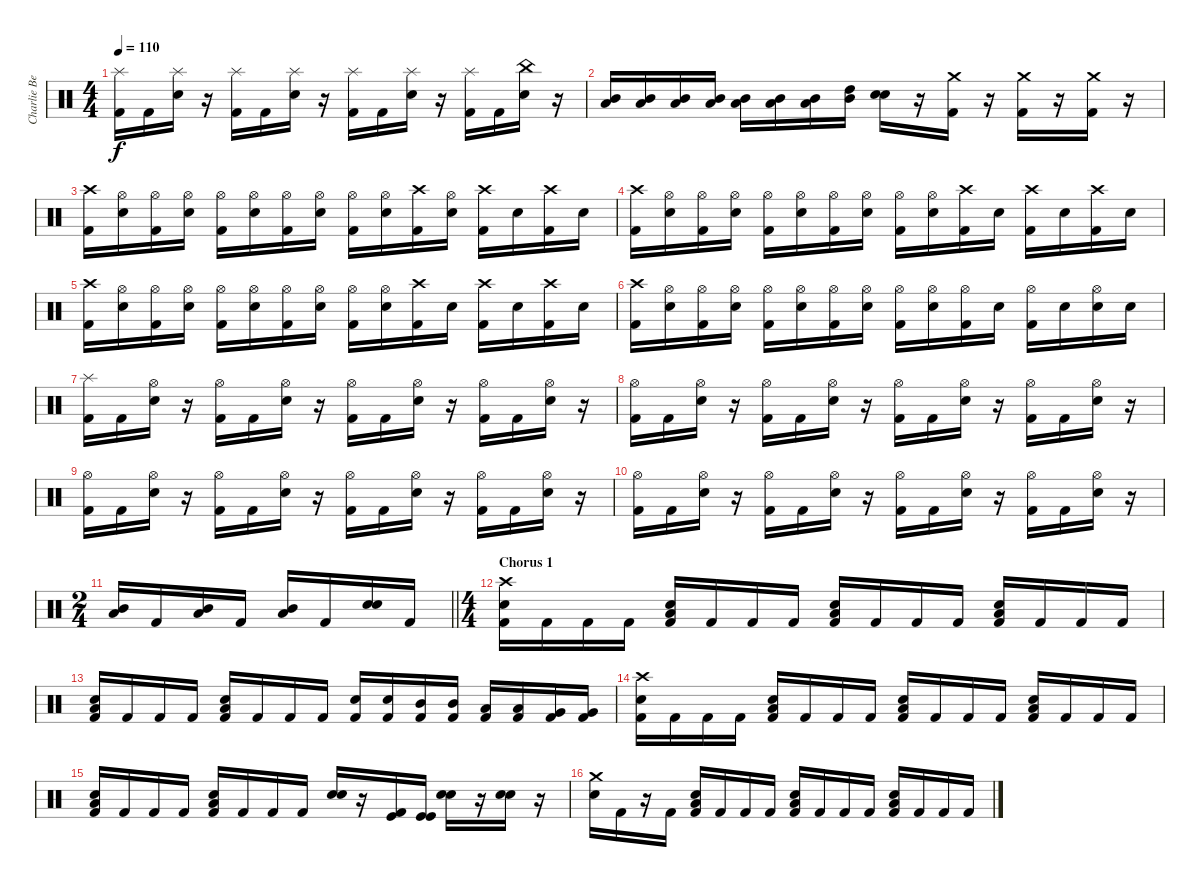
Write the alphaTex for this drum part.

\track ("Charlie Benante" "Charlie Be") {instrument percussion}
\staff {score}
\articulation defaults
\ts (4 4)
\tempo 110
\clef neutral
\ks c
("Splash (hit)" "Kick (hit) 2").16{dy f} "Kick (hit) 2".16 ("Splash (hit)" "Electric Snare (hit)").16 r.16 ("Splash (hit)" "Kick (hit) 2").16 "Kick (hit) 2".16 ("Splash (hit)" "Electric Snare (hit)").16 r.16 ("Splash (hit)" "Kick (hit) 2").16 "Kick (hit) 2".16 ("Splash (hit)" "Electric Snare (hit)").16 r.16 ("Splash (hit)" "Kick (hit) 2").16 "Kick (hit) 2".16 ("China (hit)" "Electric Snare (hit)").16 r.16 |
("Low Tom (hit)" "Mid Tom (hit)").16 ("Low Tom (hit)" "Mid Tom (hit)").16 ("Low Tom (hit)" "Mid Tom (hit)").16 ("Low Tom (hit)" "Mid Tom (hit)").16 ("Low Tom (hit)" "Mid Tom (hit)").16 ("Low Tom (hit)" "Mid Tom (hit)").16 ("Low Tom (hit)" "Mid Tom (hit)").16 ("Mid Tom (hit)" "High Tom (hit)").16 ("Electric Snare (hit)" "Snare (hit) 2").16 r.16 ("Crash medium (hit)" "Kick (hit) 2").16 r.16 ("Crash medium (hit)" "Kick (hit) 2").16 r.16 ("Crash medium (hit)" "Kick (hit) 2").16 r.16 |
("Crash high (hit)" "Kick (hit) 2").16 ("Hi-Hat (open)" "Electric Snare (hit)").16 ("Hi-Hat (open)" "Kick (hit) 2").16 ("Hi-Hat (open)" "Electric Snare (hit)").16 ("Hi-Hat (open)" "Kick (hit) 2").16 ("Hi-Hat (open)" "Electric Snare (hit)").16 ("Hi-Hat (open)" "Kick (hit) 2").16 ("Hi-Hat (open)" "Electric Snare (hit)").16 ("Hi-Hat (open)" "Kick (hit) 2").16 ("Hi-Hat (open)" "Electric Snare (hit)").16 ("Crash high (hit)" "Kick (hit) 2").16 ("Hi-Hat (open)" "Electric Snare (hit)").16 ("Crash high (hit)" "Kick (hit) 2").16 "Electric Snare (hit)".16 ("Crash high (hit)" "Kick (hit) 2").16 "Electric Snare (hit)".16 |
("Crash high (hit)" "Kick (hit) 2").16 ("Hi-Hat (open)" "Electric Snare (hit)").16 ("Hi-Hat (open)" "Kick (hit) 2").16 ("Hi-Hat (open)" "Electric Snare (hit)").16 ("Hi-Hat (open)" "Kick (hit) 2").16 ("Hi-Hat (open)" "Electric Snare (hit)").16 ("Hi-Hat (open)" "Kick (hit) 2").16 ("Hi-Hat (open)" "Electric Snare (hit)").16 ("Hi-Hat (open)" "Kick (hit) 2").16 ("Hi-Hat (open)" "Electric Snare (hit)").16 ("Crash high (hit)" "Kick (hit) 2").16 "Electric Snare (hit)".16 ("Crash high (hit)" "Kick (hit) 2").16 "Electric Snare (hit)".16 ("Crash high (hit)" "Kick (hit) 2").16 "Electric Snare (hit)".16 |
("Crash high (hit)" "Kick (hit) 2").16 ("Hi-Hat (open)" "Electric Snare (hit)").16 ("Hi-Hat (open)" "Kick (hit) 2").16 ("Hi-Hat (open)" "Electric Snare (hit)").16 ("Hi-Hat (open)" "Kick (hit) 2").16 ("Hi-Hat (open)" "Electric Snare (hit)").16 ("Hi-Hat (open)" "Kick (hit) 2").16 ("Hi-Hat (open)" "Electric Snare (hit)").16 ("Hi-Hat (open)" "Kick (hit) 2").16 ("Hi-Hat (open)" "Electric Snare (hit)").16 ("Crash high (hit)" "Kick (hit) 2").16 "Electric Snare (hit)".16 ("Crash high (hit)" "Kick (hit) 2").16 "Electric Snare (hit)".16 ("Crash high (hit)" "Kick (hit) 2").16 "Electric Snare (hit)".16 |
("Crash high (hit)" "Kick (hit) 2").16 ("Hi-Hat (open)" "Electric Snare (hit)").16 ("Hi-Hat (open)" "Kick (hit) 2").16 ("Hi-Hat (open)" "Electric Snare (hit)").16 ("Hi-Hat (open)" "Kick (hit) 2").16 ("Hi-Hat (open)" "Electric Snare (hit)").16 ("Hi-Hat (open)" "Kick (hit) 2").16 ("Hi-Hat (open)" "Electric Snare (hit)").16 ("Hi-Hat (open)" "Kick (hit) 2").16 ("Hi-Hat (open)" "Electric Snare (hit)").16 ("Hi-Hat (open)" "Kick (hit) 2").16 "Electric Snare (hit)".16 ("Hi-Hat (open)" "Kick (hit) 2").16 "Electric Snare (hit)".16 ("Hi-Hat (open)" "Electric Snare (hit)").16 "Electric Snare (hit)".16 |
("Splash (hit)" "Kick (hit) 2").16 "Kick (hit) 2".16 ("Hi-Hat (open)" "Electric Snare (hit)").16 r.16 ("Hi-Hat (open)" "Kick (hit) 2").16 "Kick (hit) 2".16 ("Hi-Hat (open)" "Electric Snare (hit)").16 r.16 ("Hi-Hat (open)" "Kick (hit) 2").16 "Kick (hit) 2".16 ("Hi-Hat (open)" "Electric Snare (hit)").16 r.16 ("Hi-Hat (open)" "Kick (hit) 2").16 "Kick (hit) 2".16 ("Hi-Hat (open)" "Electric Snare (hit)").16 r.16 |
("Hi-Hat (open)" "Kick (hit) 2").16 "Kick (hit) 2".16 ("Hi-Hat (open)" "Electric Snare (hit)").16 r.16 ("Hi-Hat (open)" "Kick (hit) 2").16 "Kick (hit) 2".16 ("Hi-Hat (open)" "Electric Snare (hit)").16 r.16 ("Hi-Hat (open)" "Kick (hit) 2").16 "Kick (hit) 2".16 ("Hi-Hat (open)" "Electric Snare (hit)").16 r.16 ("Hi-Hat (open)" "Kick (hit) 2").16 "Kick (hit) 2".16 ("Hi-Hat (open)" "Electric Snare (hit)").16 r.16 |
("Hi-Hat (open)" "Kick (hit) 2").16 "Kick (hit) 2".16 ("Hi-Hat (open)" "Electric Snare (hit)").16 r.16 ("Hi-Hat (open)" "Kick (hit) 2").16 "Kick (hit) 2".16 ("Hi-Hat (open)" "Electric Snare (hit)").16 r.16 ("Hi-Hat (open)" "Kick (hit) 2").16 "Kick (hit) 2".16 ("Hi-Hat (open)" "Electric Snare (hit)").16 r.16 ("Hi-Hat (open)" "Kick (hit) 2").16 "Kick (hit) 2".16 ("Hi-Hat (open)" "Electric Snare (hit)").16 r.16 |
("Hi-Hat (open)" "Kick (hit) 2").16 "Kick (hit) 2".16 ("Hi-Hat (open)" "Electric Snare (hit)").16 r.16 ("Hi-Hat (open)" "Kick (hit) 2").16 "Kick (hit) 2".16 ("Hi-Hat (open)" "Electric Snare (hit)").16 r.16 ("Hi-Hat (open)" "Kick (hit) 2").16 "Kick (hit) 2".16 ("Hi-Hat (open)" "Electric Snare (hit)").16 r.16 ("Hi-Hat (open)" "Kick (hit) 2").16 "Kick (hit) 2".16 ("Hi-Hat (open)" "Electric Snare (hit)").16 r.16 |
\ts (2 4)
\barLineRight lightlight
("Low Tom (hit)" "Mid Tom (hit)").16 "Kick (hit) 2".16 ("Low Tom (hit)" "Mid Tom (hit)").16 "Kick (hit) 2".16 ("Low Tom (hit)" "Mid Tom (hit)").16 "Kick (hit) 2".16 ("Snare (hit) 2" "Electric Snare (hit)").16 "Kick (hit) 2".16 |
\ts (4 4)
\section ("" "Chorus 1")
("Crash high (hit)" "Electric Snare (hit)" "Kick (hit) 2").16 "Kick (hit) 2".16 "Kick (hit) 2".16 "Kick (hit) 2".16 ("Low Floor Tom (hit)" "Electric Snare (hit)" "Kick (hit) 2").16 "Kick (hit) 2".16 "Kick (hit) 2".16 "Kick (hit) 2".16 ("Low Floor Tom (hit)" "Electric Snare (hit)" "Kick (hit) 2").16 "Kick (hit) 2".16 "Kick (hit) 2".16 "Kick (hit) 2".16 ("Low Floor Tom (hit)" "Electric Snare (hit)" "Kick (hit) 2").16 "Kick (hit) 2".16 "Kick (hit) 2".16 "Kick (hit) 2".16 |
("Low Floor Tom (hit)" "Electric Snare (hit)" "Kick (hit) 2").16 "Kick (hit) 2".16 "Kick (hit) 2".16 "Kick (hit) 2".16 ("Low Floor Tom (hit)" "Electric Snare (hit)" "Kick (hit) 2").16 "Kick (hit) 2".16 "Kick (hit) 2".16 "Kick (hit) 2".16 ("Electric Snare (hit)" "Kick (hit) 2").16 ("Electric Snare (hit)" "Kick (hit) 2").16 ("Mid Tom (hit)" "Kick (hit) 2").16 ("Mid Tom (hit)" "Kick (hit) 2").16 ("Low Tom (hit)" "Kick (hit) 2").16 ("Low Tom (hit)" "Kick (hit) 2").16 ("Very Low Tom (hit)" "Kick (hit) 2").16 ("Very Low Tom (hit)" "Kick (hit) 2").16 |
("Crash high (hit)" "Electric Snare (hit)" "Kick (hit) 2").16 "Kick (hit) 2".16 "Kick (hit) 2".16 "Kick (hit) 2".16 ("Low Floor Tom (hit)" "Electric Snare (hit)" "Kick (hit) 2").16 "Kick (hit) 2".16 "Kick (hit) 2".16 "Kick (hit) 2".16 ("Low Floor Tom (hit)" "Electric Snare (hit)" "Kick (hit) 2").16 "Kick (hit) 2".16 "Kick (hit) 2".16 "Kick (hit) 2".16 ("Low Floor Tom (hit)" "Electric Snare (hit)" "Kick (hit) 2").16 "Kick (hit) 2".16 "Kick (hit) 2".16 "Kick (hit) 2".16 |
("Low Floor Tom (hit)" "Electric Snare (hit)" "Kick (hit) 2").16 "Kick (hit) 2".16 "Kick (hit) 2".16 "Kick (hit) 2".16 ("Low Floor Tom (hit)" "Electric Snare (hit)" "Kick (hit) 2").16 "Kick (hit) 2".16 "Kick (hit) 2".16 "Kick (hit) 2".16 ("Snare (hit) 2" "Electric Snare (hit)").16 r.16 ("Kick (hit)" "Kick (hit) 2").16 ("Kick (hit)" "Kick (hit)").16 ("Snare (hit) 2" "Electric Snare (hit)").16 r.16 ("Snare (hit) 2" "Electric Snare (hit)").16 r.16 |
("Crash medium (hit)" "Electric Snare (hit)").16 "Kick (hit) 2".16 r.16 "Kick (hit) 2".16 ("Low Floor Tom (hit)" "Electric Snare (hit)" "Kick (hit) 2").16 "Kick (hit) 2".16 "Kick (hit) 2".16 "Kick (hit) 2".16 ("Low Floor Tom (hit)" "Electric Snare (hit)" "Kick (hit) 2").16 "Kick (hit) 2".16 "Kick (hit) 2".16 "Kick (hit) 2".16 ("Low Floor Tom (hit)" "Electric Snare (hit)" "Kick (hit) 2").16 "Kick (hit) 2".16 "Kick (hit) 2".16 "Kick (hit) 2".16
